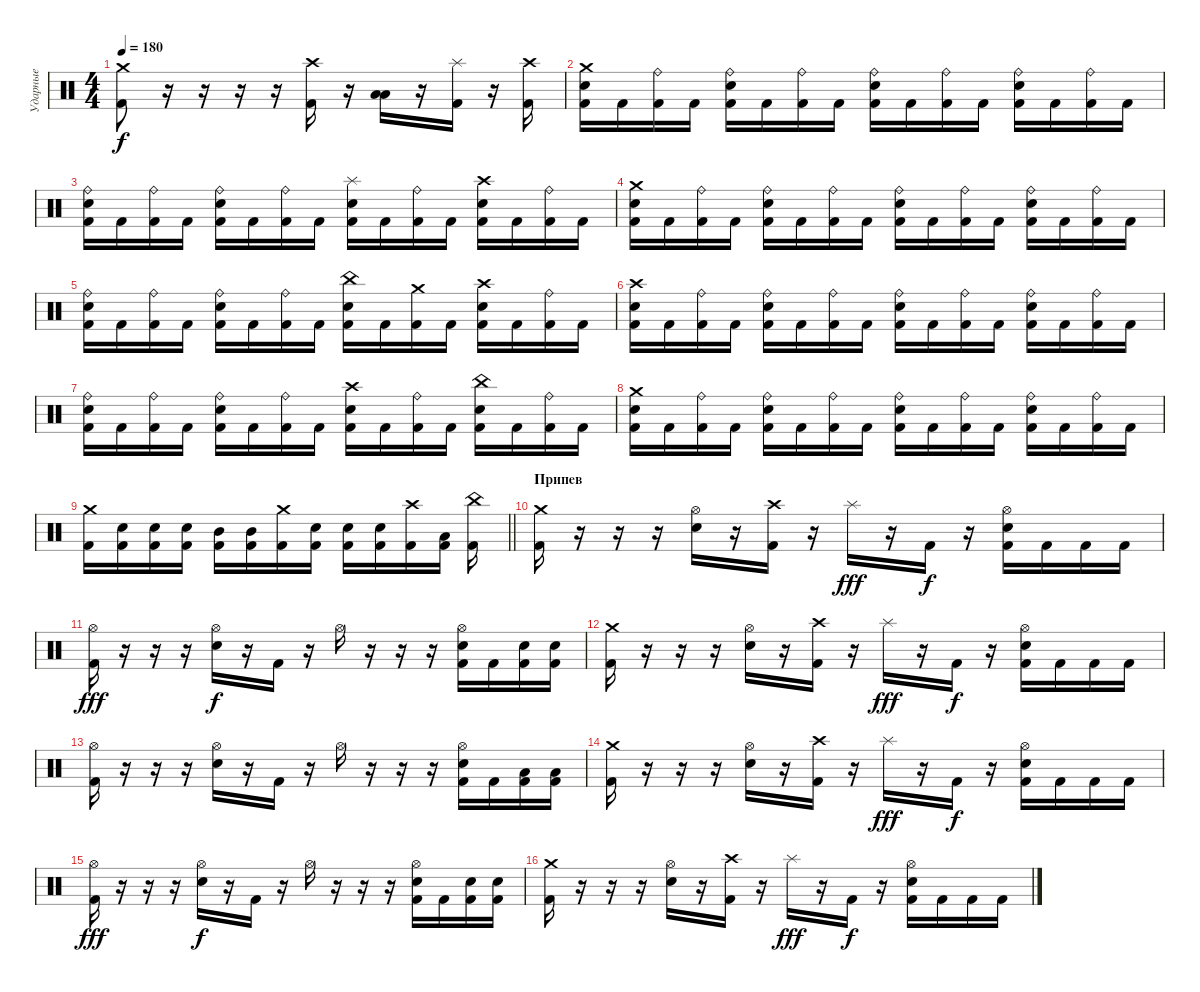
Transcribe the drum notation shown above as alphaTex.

\track ("Ударные" "Ударные") {instrument percussion}
\staff {score}
\articulation defaults
\ts (4 4)
\tempo 180
\clef neutral
\ks c
("Crash medium (hit)" "Kick (hit) 2").8{dy f} r.16 r.16 r.16 r.16 ("Crash high (hit)" "Kick (hit) 2").16 r.16 ("Low Tom (hit)" "Low Floor Tom (hit)").16 r.16 ("Splash (hit)" "Kick (hit) 2").16 r.16 ("Crash high (hit)" "Kick (hit) 2").16 |
("Crash medium (hit)" "Snare (hit) 2" "Kick (hit) 2").16 "Kick (hit) 2".16 ("Ride (bell)" "Kick (hit) 2").16 "Kick (hit) 2".16 ("Ride (bell)" "Snare (hit) 2" "Kick (hit) 2").16 "Kick (hit) 2".16 ("Ride (bell)" "Kick (hit) 2").16 "Kick (hit) 2".16 ("Ride (bell)" "Snare (hit) 2" "Kick (hit) 2").16 "Kick (hit) 2".16 ("Ride (bell)" "Kick (hit) 2").16 "Kick (hit) 2".16 ("Ride (bell)" "Snare (hit) 2" "Kick (hit) 2").16 "Kick (hit) 2".16 ("Ride (bell)" "Kick (hit) 2").16 "Kick (hit) 2".16 |
("Ride (bell)" "Snare (hit) 2" "Kick (hit) 2").16 "Kick (hit) 2".16 ("Ride (bell)" "Kick (hit) 2").16 "Kick (hit) 2".16 ("Ride (bell)" "Snare (hit) 2" "Kick (hit) 2").16 "Kick (hit) 2".16 ("Ride (bell)" "Kick (hit) 2").16 "Kick (hit) 2".16 ("Splash (hit)" "Snare (hit) 2" "Kick (hit) 2").16 "Kick (hit) 2".16 ("Ride (bell)" "Kick (hit) 2").16 "Kick (hit) 2".16 ("Crash high (hit)" "Snare (hit) 2" "Kick (hit) 2").16 "Kick (hit) 2".16 ("Ride (bell)" "Kick (hit) 2").16 "Kick (hit) 2".16 |
("Crash medium (hit)" "Snare (hit) 2" "Kick (hit) 2").16 "Kick (hit) 2".16 ("Ride (bell)" "Kick (hit) 2").16 "Kick (hit) 2".16 ("Ride (bell)" "Snare (hit) 2" "Kick (hit) 2").16 "Kick (hit) 2".16 ("Ride (bell)" "Kick (hit) 2").16 "Kick (hit) 2".16 ("Ride (bell)" "Snare (hit) 2" "Kick (hit) 2").16 "Kick (hit) 2".16 ("Ride (bell)" "Kick (hit) 2").16 "Kick (hit) 2".16 ("Ride (bell)" "Snare (hit) 2" "Kick (hit) 2").16 "Kick (hit) 2".16 ("Ride (bell)" "Kick (hit) 2").16 "Kick (hit) 2".16 |
("Ride (bell)" "Snare (hit) 2" "Kick (hit) 2").16 "Kick (hit) 2".16 ("Ride (bell)" "Kick (hit) 2").16 "Kick (hit) 2".16 ("Ride (bell)" "Snare (hit) 2" "Kick (hit) 2").16 "Kick (hit) 2".16 ("Ride (bell)" "Kick (hit) 2").16 "Kick (hit) 2".16 ("China (hit)" "Snare (hit) 2" "Kick (hit) 2").16 "Kick (hit) 2".16 ("Crash medium (hit)" "Kick (hit) 2").16 "Kick (hit) 2".16 ("Crash high (hit)" "Snare (hit) 2" "Kick (hit) 2").16 "Kick (hit) 2".16 ("Ride (bell)" "Kick (hit) 2").16 "Kick (hit) 2".16 |
("Crash high (hit)" "Snare (hit) 2" "Kick (hit) 2").16 "Kick (hit) 2".16 ("Ride (bell)" "Kick (hit) 2").16 "Kick (hit) 2".16 ("Ride (bell)" "Snare (hit) 2" "Kick (hit) 2").16 "Kick (hit) 2".16 ("Ride (bell)" "Kick (hit) 2").16 "Kick (hit) 2".16 ("Ride (bell)" "Snare (hit) 2" "Kick (hit) 2").16 "Kick (hit) 2".16 ("Ride (bell)" "Kick (hit) 2").16 "Kick (hit) 2".16 ("Ride (bell)" "Snare (hit) 2" "Kick (hit) 2").16 "Kick (hit) 2".16 ("Ride (bell)" "Kick (hit) 2").16 "Kick (hit) 2".16 |
("Ride (bell)" "Snare (hit) 2" "Kick (hit) 2").16 "Kick (hit) 2".16 ("Ride (bell)" "Kick (hit) 2").16 "Kick (hit) 2".16 ("Ride (bell)" "Snare (hit) 2" "Kick (hit) 2").16 "Kick (hit) 2".16 ("Ride (bell)" "Kick (hit) 2").16 "Kick (hit) 2".16 ("Crash high (hit)" "Snare (hit) 2" "Kick (hit) 2").16 "Kick (hit) 2".16 ("Ride (bell)" "Kick (hit) 2").16 "Kick (hit) 2".16 ("China (hit)" "Snare (hit) 2" "Kick (hit) 2").16 "Kick (hit) 2".16 ("Ride (bell)" "Kick (hit) 2").16 "Kick (hit) 2".16 |
("Crash medium (hit)" "Snare (hit) 2" "Kick (hit) 2").16 "Kick (hit) 2".16 ("Ride (bell)" "Kick (hit) 2").16 "Kick (hit) 2".16 ("Ride (bell)" "Snare (hit) 2" "Kick (hit) 2").16 "Kick (hit) 2".16 ("Ride (bell)" "Kick (hit) 2").16 "Kick (hit) 2".16 ("Ride (bell)" "Snare (hit) 2" "Kick (hit) 2").16 "Kick (hit) 2".16 ("Ride (bell)" "Kick (hit) 2").16 "Kick (hit) 2".16 ("Ride (bell)" "Snare (hit) 2" "Kick (hit) 2").16 "Kick (hit) 2".16 ("Ride (bell)" "Kick (hit) 2").16 "Kick (hit) 2".16 |
\barLineRight lightlight
("Crash medium (hit)" "Kick (hit) 2").16 ("Snare (hit) 2" "Kick (hit) 2").16 ("Snare (hit) 2" "Kick (hit) 2").16 ("Snare (hit) 2" "Kick (hit) 2").16 ("Mid Tom (hit)" "Kick (hit) 2").16 ("Mid Tom (hit)" "Kick (hit) 2").16 ("Crash medium (hit)" "Kick (hit) 2").16 ("Snare (hit) 2" "Kick (hit) 2").16 ("Snare (hit) 2" "Kick (hit) 2").16 ("Snare (hit) 2" "Kick (hit) 2").16 ("Crash high (hit)" "Kick (hit) 2").16 ("Low Tom (hit)" "Kick (hit) 2").16 ("China (hit)" "Kick (hit) 2").16 |
\section ("" "Припев")
("Crash medium (hit)" "Kick (hit) 2").16 r.16 r.16 r.16 ("Hi-Hat (open)" "Snare (hit) 2").16 r.16 ("Crash high (hit)" "Kick (hit) 2").16 r.16 "Splash (hit)".16{dy fff} r.16 "Kick (hit) 2".16{dy f} r.16 ("Hi-Hat (open)" "Snare (hit) 2" "Kick (hit) 2").16 "Kick (hit) 2".16 "Kick (hit) 2".16 "Kick (hit) 2".16 |
("Hi-Hat (open)" "Kick (hit) 2").16{dy fff} r.16 r.16 r.16 ("Hi-Hat (open)" "Snare (hit) 2").16{dy f} r.16 "Kick (hit) 2".16 r.16 "Hi-Hat (open)".16 r.16 r.16 r.16 ("Hi-Hat (open)" "Snare (hit) 2" "Kick (hit) 2").16 "Kick (hit) 2".16 ("Snare (hit) 2" "Kick (hit) 2").16 ("Snare (hit) 2" "Kick (hit) 2").16 |
("Crash medium (hit)" "Kick (hit) 2").16 r.16 r.16 r.16 ("Hi-Hat (open)" "Snare (hit) 2").16 r.16 ("Crash high (hit)" "Kick (hit) 2").16 r.16 "Splash (hit)".16{dy fff} r.16 "Kick (hit) 2".16{dy f} r.16 ("Hi-Hat (open)" "Snare (hit) 2" "Kick (hit) 2").16 "Kick (hit) 2".16 "Kick (hit) 2".16 "Kick (hit) 2".16 |
("Hi-Hat (open)" "Kick (hit) 2").16 r.16 r.16 r.16 ("Hi-Hat (open)" "Snare (hit) 2").16 r.16 "Kick (hit) 2".16 r.16 "Hi-Hat (open)".16 r.16 r.16 r.16 ("Hi-Hat (open)" "Snare (hit) 2" "Kick (hit) 2").16 "Kick (hit) 2".16 ("Low Tom (hit)" "Kick (hit) 2").16 ("Low Tom (hit)" "Kick (hit) 2").16 |
("Crash medium (hit)" "Kick (hit) 2").16 r.16 r.16 r.16 ("Hi-Hat (open)" "Snare (hit) 2").16 r.16 ("Crash high (hit)" "Kick (hit) 2").16 r.16 "Splash (hit)".16{dy fff} r.16 "Kick (hit) 2".16{dy f} r.16 ("Hi-Hat (open)" "Snare (hit) 2" "Kick (hit) 2").16 "Kick (hit) 2".16 "Kick (hit) 2".16 "Kick (hit) 2".16 |
("Hi-Hat (open)" "Kick (hit) 2").16{dy fff} r.16 r.16 r.16 ("Hi-Hat (open)" "Snare (hit) 2").16{dy f} r.16 "Kick (hit) 2".16 r.16 "Hi-Hat (open)".16 r.16 r.16 r.16 ("Hi-Hat (open)" "Snare (hit) 2" "Kick (hit) 2").16 "Kick (hit) 2".16 ("Snare (hit) 2" "Kick (hit) 2").16 ("Snare (hit) 2" "Kick (hit) 2").16 |
("Crash medium (hit)" "Kick (hit) 2").16 r.16 r.16 r.16 ("Hi-Hat (open)" "Snare (hit) 2").16 r.16 ("Crash high (hit)" "Kick (hit) 2").16 r.16 "Splash (hit)".16{dy fff} r.16 "Kick (hit) 2".16{dy f} r.16 ("Hi-Hat (open)" "Snare (hit) 2" "Kick (hit) 2").16 "Kick (hit) 2".16 "Kick (hit) 2".16 "Kick (hit) 2".16
